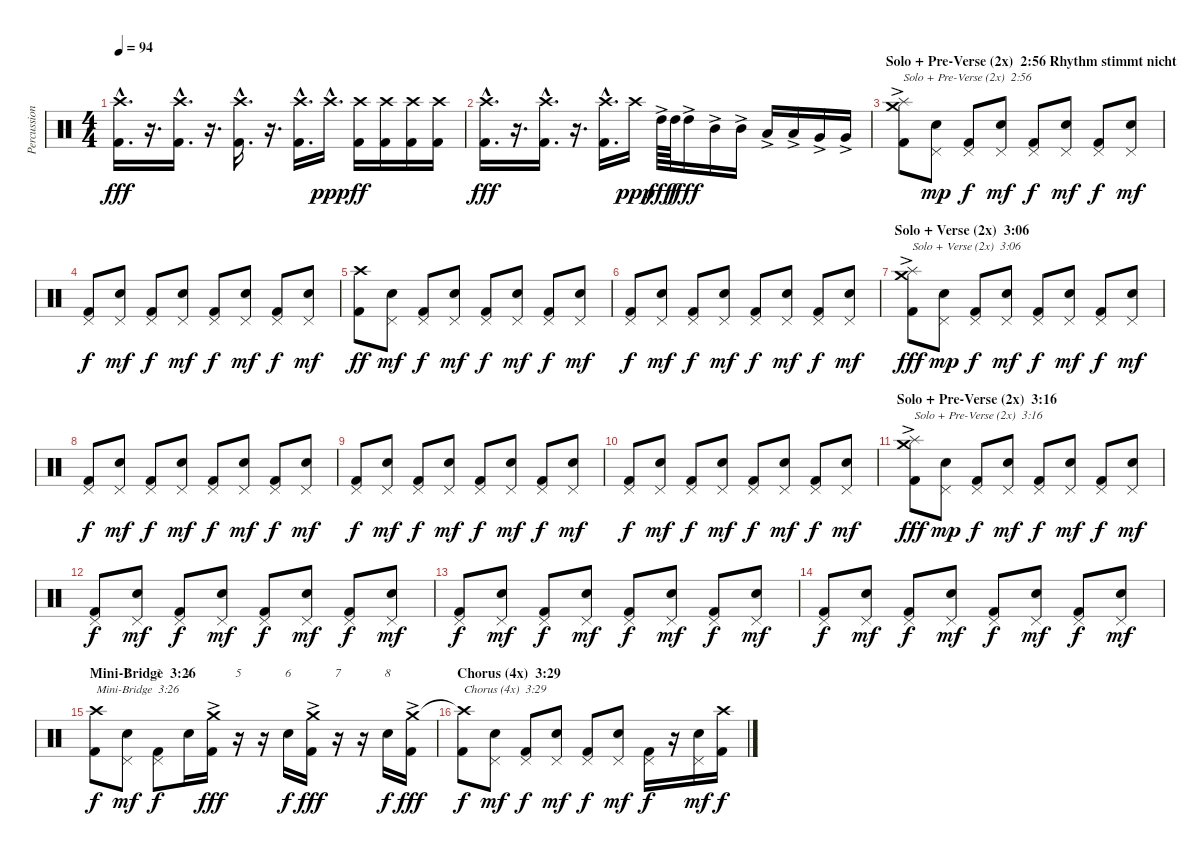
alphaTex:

\track ("Percussion" "Percussion") {instrument percussion}
\staff {score}
\articulation defaults
\chord ("1")
\chord ("2")
\chord ("3")
\chord ("4")
\chord ("5")
\chord ("6")
\chord ("7")
\chord ("8")
\ts (4 4)
\tempo 94
\clef neutral
\ks c
("Kick (hit) 2"{hac} "Crash high (hit)"{hac}).16{d dy fff} r.16{d volume 0} ("Kick (hit) 2"{hac} "Crash high (hit)"{hac}).16{d volume 16} r.16{d volume 0} ("Kick (hit) 2"{hac} "Crash high (hit)"{hac}).16{d volume 16} r.16{d volume 0} ("Kick (hit) 2"{hac} "Crash high (hit)"{hac}).16{d volume 16} "Crash high (hit)"{hac}.16{d dy ppp} ("Kick (hit) 2" "Crash high (hit)").16{dy ff} ("Kick (hit) 2" "Crash high (hit)").16 ("Kick (hit) 2" "Crash high (hit)").16 ("Kick (hit) 2" "Crash high (hit)").16 |
("Kick (hit) 2"{hac} "Crash high (hit)"{hac}).16{d dy fff} r.16{d volume 0} ("Kick (hit) 2"{hac} "Crash high (hit)"{hac}).16{d volume 16} r.16{d volume 0} ("Kick (hit) 2"{hac} "Crash high (hit)"{hac}).16{d volume 16} "Crash high (hit)".16{dy ppp} "High Tom (hit)"{ac}.64{dy fff} "High Tom (hit)".64{dy f} "High Tom (hit)"{ac}.16{dy fff} "Mid Tom (hit)"{ac}.16 "Mid Tom (hit)"{ac}.16 "Low Tom (hit)"{ac}.16 "Low Tom (hit)"{ac}.16 "Very Low Tom (hit)"{ac}.16 "Very Low Tom (hit)"{ac}.16 |
\section ("" "Solo + Pre-Verse (2x)  2:56 Rhythm stimmt nicht")
("Kick (hit) 2" "Splash (hit)" "Crash medium (hit)"{ac}).8{txt "Solo + Pre-Verse (2x)  2:56"} ("Snare (hit) 2" "Pedal Hi-Hat (hit)").8{dy mp} ("Kick (hit) 2" "Pedal Hi-Hat (hit)").8{dy f} ("Snare (hit) 2" "Pedal Hi-Hat (hit)").8{dy mf} ("Kick (hit) 2" "Pedal Hi-Hat (hit)").8{dy f} ("Snare (hit) 2" "Pedal Hi-Hat (hit)").8{dy mf} ("Kick (hit) 2" "Pedal Hi-Hat (hit)").8{dy f} ("Snare (hit) 2" "Pedal Hi-Hat (hit)").8{dy mf} |
("Kick (hit) 2" "Pedal Hi-Hat (hit)").8{dy f} ("Snare (hit) 2" "Pedal Hi-Hat (hit)").8{dy mf} ("Kick (hit) 2" "Pedal Hi-Hat (hit)").8{dy f} ("Snare (hit) 2" "Pedal Hi-Hat (hit)").8{dy mf} ("Kick (hit) 2" "Pedal Hi-Hat (hit)").8{dy f} ("Snare (hit) 2" "Pedal Hi-Hat (hit)").8{dy mf} ("Kick (hit) 2" "Pedal Hi-Hat (hit)").8{dy f} ("Snare (hit) 2" "Pedal Hi-Hat (hit)").8{dy mf} |
("Kick (hit) 2" "Crash high (hit)").8{dy ff} ("Snare (hit) 2" "Pedal Hi-Hat (hit)").8{dy mf} ("Kick (hit) 2" "Pedal Hi-Hat (hit)").8{dy f} ("Snare (hit) 2" "Pedal Hi-Hat (hit)").8{dy mf} ("Kick (hit) 2" "Pedal Hi-Hat (hit)").8{dy f} ("Snare (hit) 2" "Pedal Hi-Hat (hit)").8{dy mf} ("Kick (hit) 2" "Pedal Hi-Hat (hit)").8{dy f} ("Snare (hit) 2" "Pedal Hi-Hat (hit)").8{dy mf} |
("Kick (hit) 2" "Pedal Hi-Hat (hit)").8{dy f} ("Snare (hit) 2" "Pedal Hi-Hat (hit)").8{dy mf} ("Kick (hit) 2" "Pedal Hi-Hat (hit)").8{dy f} ("Snare (hit) 2" "Pedal Hi-Hat (hit)").8{dy mf} ("Kick (hit) 2" "Pedal Hi-Hat (hit)").8{dy f} ("Snare (hit) 2" "Pedal Hi-Hat (hit)").8{dy mf} ("Kick (hit) 2" "Pedal Hi-Hat (hit)").8{dy f} ("Snare (hit) 2" "Pedal Hi-Hat (hit)").8{dy mf} |
\section ("" "Solo + Verse (2x)  3:06")
("Kick (hit) 2" "Splash (hit)" "Crash medium (hit)"{ac}).8{txt "Solo + Verse (2x)  3:06" dy fff} ("Snare (hit) 2" "Pedal Hi-Hat (hit)").8{dy mp} ("Kick (hit) 2" "Pedal Hi-Hat (hit)").8{dy f} ("Snare (hit) 2" "Pedal Hi-Hat (hit)").8{dy mf} ("Kick (hit) 2" "Pedal Hi-Hat (hit)").8{dy f} ("Snare (hit) 2" "Pedal Hi-Hat (hit)").8{dy mf} ("Kick (hit) 2" "Pedal Hi-Hat (hit)").8{dy f} ("Snare (hit) 2" "Pedal Hi-Hat (hit)").8{dy mf} |
("Kick (hit) 2" "Pedal Hi-Hat (hit)").8{dy f} ("Snare (hit) 2" "Pedal Hi-Hat (hit)").8{dy mf} ("Kick (hit) 2" "Pedal Hi-Hat (hit)").8{dy f} ("Snare (hit) 2" "Pedal Hi-Hat (hit)").8{dy mf} ("Kick (hit) 2" "Pedal Hi-Hat (hit)").8{dy f} ("Snare (hit) 2" "Pedal Hi-Hat (hit)").8{dy mf} ("Kick (hit) 2" "Pedal Hi-Hat (hit)").8{dy f} ("Snare (hit) 2" "Pedal Hi-Hat (hit)").8{dy mf} |
("Kick (hit) 2" "Pedal Hi-Hat (hit)").8{dy f} ("Snare (hit) 2" "Pedal Hi-Hat (hit)").8{dy mf} ("Kick (hit) 2" "Pedal Hi-Hat (hit)").8{dy f} ("Snare (hit) 2" "Pedal Hi-Hat (hit)").8{dy mf} ("Kick (hit) 2" "Pedal Hi-Hat (hit)").8{dy f} ("Snare (hit) 2" "Pedal Hi-Hat (hit)").8{dy mf} ("Kick (hit) 2" "Pedal Hi-Hat (hit)").8{dy f} ("Snare (hit) 2" "Pedal Hi-Hat (hit)").8{dy mf} |
("Kick (hit) 2" "Pedal Hi-Hat (hit)").8{dy f} ("Snare (hit) 2" "Pedal Hi-Hat (hit)").8{dy mf} ("Kick (hit) 2" "Pedal Hi-Hat (hit)").8{dy f} ("Snare (hit) 2" "Pedal Hi-Hat (hit)").8{dy mf} ("Kick (hit) 2" "Pedal Hi-Hat (hit)").8{dy f} ("Snare (hit) 2" "Pedal Hi-Hat (hit)").8{dy mf} ("Kick (hit) 2" "Pedal Hi-Hat (hit)").8{dy f} ("Snare (hit) 2" "Pedal Hi-Hat (hit)").8{dy mf} |
\section ("" "Solo + Pre-Verse (2x)  3:16")
("Kick (hit) 2" "Splash (hit)" "Crash medium (hit)"{ac}).8{txt "Solo + Pre-Verse (2x)  3:16" dy fff} ("Snare (hit) 2" "Pedal Hi-Hat (hit)").8{dy mp} ("Kick (hit) 2" "Pedal Hi-Hat (hit)").8{dy f} ("Snare (hit) 2" "Pedal Hi-Hat (hit)").8{dy mf} ("Kick (hit) 2" "Pedal Hi-Hat (hit)").8{dy f} ("Snare (hit) 2" "Pedal Hi-Hat (hit)").8{dy mf} ("Kick (hit) 2" "Pedal Hi-Hat (hit)").8{dy f} ("Snare (hit) 2" "Pedal Hi-Hat (hit)").8{dy mf} |
("Kick (hit) 2" "Pedal Hi-Hat (hit)").8{dy f} ("Snare (hit) 2" "Pedal Hi-Hat (hit)").8{dy mf} ("Kick (hit) 2" "Pedal Hi-Hat (hit)").8{dy f} ("Snare (hit) 2" "Pedal Hi-Hat (hit)").8{dy mf} ("Kick (hit) 2" "Pedal Hi-Hat (hit)").8{dy f} ("Snare (hit) 2" "Pedal Hi-Hat (hit)").8{dy mf} ("Kick (hit) 2" "Pedal Hi-Hat (hit)").8{dy f} ("Snare (hit) 2" "Pedal Hi-Hat (hit)").8{dy mf} |
("Kick (hit) 2" "Pedal Hi-Hat (hit)").8{dy f} ("Snare (hit) 2" "Pedal Hi-Hat (hit)").8{dy mf} ("Kick (hit) 2" "Pedal Hi-Hat (hit)").8{dy f} ("Snare (hit) 2" "Pedal Hi-Hat (hit)").8{dy mf} ("Kick (hit) 2" "Pedal Hi-Hat (hit)").8{dy f} ("Snare (hit) 2" "Pedal Hi-Hat (hit)").8{dy mf} ("Kick (hit) 2" "Pedal Hi-Hat (hit)").8{dy f} ("Snare (hit) 2" "Pedal Hi-Hat (hit)").8{dy mf} |
("Kick (hit) 2" "Pedal Hi-Hat (hit)").8{dy f} ("Snare (hit) 2" "Pedal Hi-Hat (hit)").8{dy mf} ("Kick (hit) 2" "Pedal Hi-Hat (hit)").8{dy f} ("Snare (hit) 2" "Pedal Hi-Hat (hit)").8{dy mf} ("Kick (hit) 2" "Pedal Hi-Hat (hit)").8{dy f} ("Snare (hit) 2" "Pedal Hi-Hat (hit)").8{dy mf} ("Kick (hit) 2" "Pedal Hi-Hat (hit)").8{dy f} ("Snare (hit) 2" "Pedal Hi-Hat (hit)").8{dy mf} |
\section ("" "Mini-Bridge  3:26")
("Kick (hit) 2" "Crash high (hit)").8{ch "1" txt "Mini-Bridge  3:26" dy f} ("Snare (hit) 2" "Pedal Hi-Hat (hit)").8{ch "2" dy mf} ("Kick (hit) 2" "Pedal Hi-Hat (hit)").8{ch "3" dy f} "Snare (hit) 2".16{ch "4"} ("Kick (hit) 2" "Crash medium (hit)"{ac}).16{dy fff} r.16{ch "5"} r.16 "Snare (hit) 2".16{ch "6" dy f} ("Kick (hit) 2" "Crash medium (hit)"{ac}).16{dy fff} r.16{ch "7"} r.16 "Snare (hit) 2".16{ch "8" dy f} ("Kick (hit) 2" "Crash medium (hit)"{ac}).16{dy fff} |
\section ("" "Chorus (4x)  3:29")
("Kick (hit) 2" "Crash high (hit)"{t}).8{txt "Chorus (4x)  3:29" dy f} ("Snare (hit) 2" "Pedal Hi-Hat (hit)").8{dy mf} ("Kick (hit) 2" "Pedal Hi-Hat (hit)").8{dy f} ("Snare (hit) 2" "Pedal Hi-Hat (hit)").8{dy mf} ("Kick (hit) 2" "Pedal Hi-Hat (hit)").8{dy f} ("Snare (hit) 2" "Pedal Hi-Hat (hit)").8{dy mf} ("Kick (hit) 2" "Pedal Hi-Hat (hit)").16{dy f} r.16 ("Snare (hit) 2" "Pedal Hi-Hat (hit)").16{dy mf} ("Kick (hit) 2" "Crash high (hit)").16{dy f}
